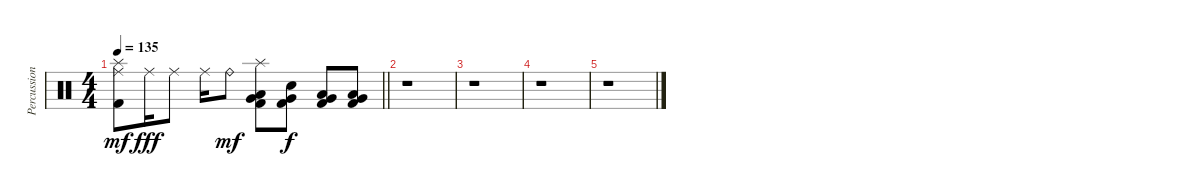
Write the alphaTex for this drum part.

\track ("Percussion" "Percussion") {instrument percussion}
\staff {score}
\articulation defaults
\ts (4 4)
\tempo 135
\clef neutral
\barLineRight lightlight
\ks c
("Ride (middle)" "Splash (hit)" "Kick (hit) 2").8{dy mf} "Ride (middle)".16{dy fff} "Ride (middle)".8 "Ride (middle)".16 "Ride (bell)".8{dy mf} ("Splash (hit)" "Very Low Tom (hit)" "Low Floor Tom (hit)" "Kick (hit) 2").8 ("Very Low Tom (hit)" "Snare (hit)" "Kick (hit) 2").8{dy f} ("Low Tom (hit)" "Very Low Tom (hit)" "Kick (hit) 2").8 ("Low Tom (hit)" "Very Low Tom (hit)" "Kick (hit) 2").8 |
r.1 |
r.1 |
r.1 |
r.1
